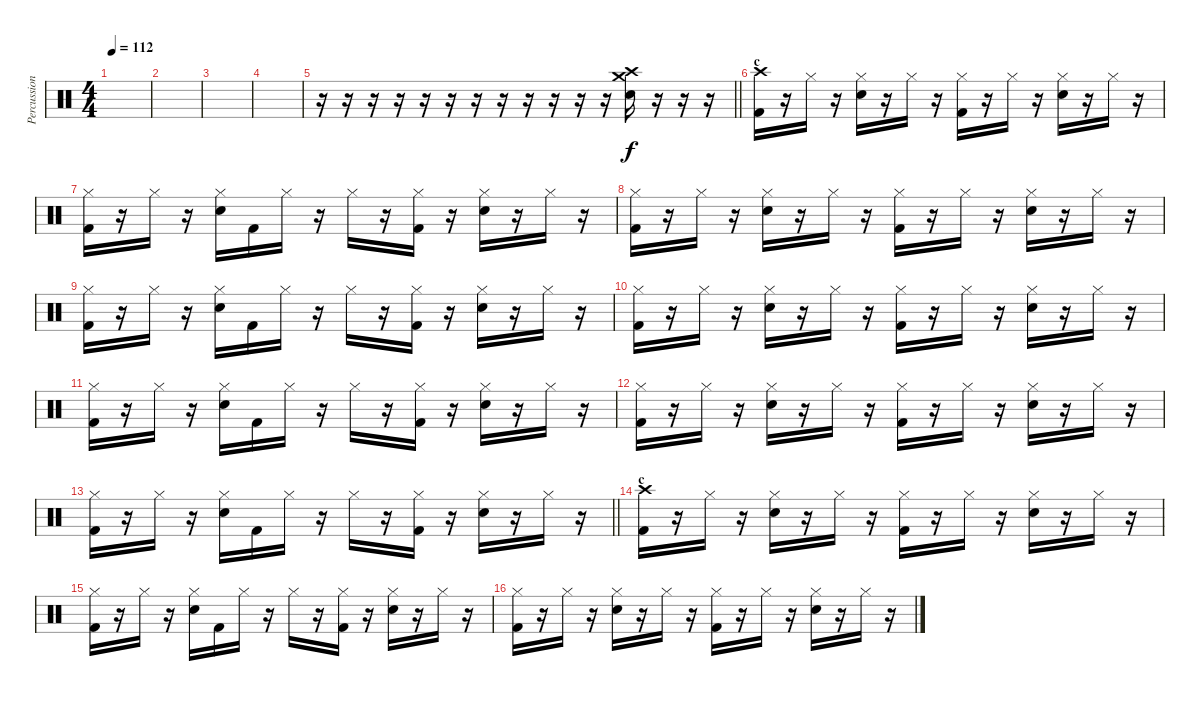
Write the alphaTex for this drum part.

\track ("Percussion" "Percussion") {instrument percussion}
\staff {score}
\articulation defaults
\ts (4 4)
\tempo 112
\clef neutral
\ks c
|
|
|
|
\barLineRight lightlight
r.16 r.16 r.16 r.16 r.16 r.16 r.16 r.16 r.16 r.16 r.16 r.16 ("Crash medium (hit)" "Crash high (hit)" "Snare (hit) 2").16 r.16 r.16 r.16 |
\section ("" "c")
("Crash high (hit)" "Kick (hit) 2").16 r.16 "Hi-Hat (closed)".16 r.16 ("Hi-Hat (closed)" "Snare (hit) 2").16 r.16 "Hi-Hat (closed)".16 r.16 ("Hi-Hat (closed)" "Kick (hit) 2").16 r.16 "Hi-Hat (closed)".16 r.16 ("Hi-Hat (closed)" "Snare (hit) 2").16 r.16 "Hi-Hat (closed)".16 r.16 |
("Hi-Hat (closed)" "Kick (hit) 2").16 r.16 "Hi-Hat (closed)".16 r.16 ("Hi-Hat (closed)" "Snare (hit) 2").16 "Kick (hit) 2".16 "Hi-Hat (closed)".16 r.16 "Hi-Hat (closed)".16 r.16 ("Hi-Hat (closed)" "Kick (hit) 2").16 r.16 ("Hi-Hat (closed)" "Snare (hit) 2").16 r.16 "Hi-Hat (closed)".16 r.16 |
("Hi-Hat (closed)" "Kick (hit) 2").16 r.16 "Hi-Hat (closed)".16 r.16 ("Hi-Hat (closed)" "Snare (hit) 2").16 r.16 "Hi-Hat (closed)".16 r.16 ("Hi-Hat (closed)" "Kick (hit) 2").16 r.16 "Hi-Hat (closed)".16 r.16 ("Hi-Hat (closed)" "Snare (hit) 2").16 r.16 "Hi-Hat (closed)".16 r.16 |
("Hi-Hat (closed)" "Kick (hit) 2").16 r.16 "Hi-Hat (closed)".16 r.16 ("Hi-Hat (closed)" "Snare (hit) 2").16 "Kick (hit) 2".16 "Hi-Hat (closed)".16 r.16 "Hi-Hat (closed)".16 r.16 ("Hi-Hat (closed)" "Kick (hit) 2").16 r.16 ("Hi-Hat (closed)" "Snare (hit) 2").16 r.16 "Hi-Hat (closed)".16 r.16 |
("Hi-Hat (closed)" "Kick (hit) 2").16 r.16 "Hi-Hat (closed)".16 r.16 ("Hi-Hat (closed)" "Snare (hit) 2").16 r.16 "Hi-Hat (closed)".16 r.16 ("Hi-Hat (closed)" "Kick (hit) 2").16 r.16 "Hi-Hat (closed)".16 r.16 ("Hi-Hat (closed)" "Snare (hit) 2").16 r.16 "Hi-Hat (closed)".16 r.16 |
("Hi-Hat (closed)" "Kick (hit) 2").16 r.16 "Hi-Hat (closed)".16 r.16 ("Hi-Hat (closed)" "Snare (hit) 2").16 "Kick (hit) 2".16 "Hi-Hat (closed)".16 r.16 "Hi-Hat (closed)".16 r.16 ("Hi-Hat (closed)" "Kick (hit) 2").16 r.16 ("Hi-Hat (closed)" "Snare (hit) 2").16 r.16 "Hi-Hat (closed)".16 r.16 |
("Hi-Hat (closed)" "Kick (hit) 2").16 r.16 "Hi-Hat (closed)".16 r.16 ("Hi-Hat (closed)" "Snare (hit) 2").16 r.16 "Hi-Hat (closed)".16 r.16 ("Hi-Hat (closed)" "Kick (hit) 2").16 r.16 "Hi-Hat (closed)".16 r.16 ("Hi-Hat (closed)" "Snare (hit) 2").16 r.16 "Hi-Hat (closed)".16 r.16 |
\barLineRight lightlight
("Hi-Hat (closed)" "Kick (hit) 2").16 r.16 "Hi-Hat (closed)".16 r.16 ("Hi-Hat (closed)" "Snare (hit) 2").16 "Kick (hit) 2".16 "Hi-Hat (closed)".16 r.16 "Hi-Hat (closed)".16 r.16 ("Hi-Hat (closed)" "Kick (hit) 2").16 r.16 ("Hi-Hat (closed)" "Snare (hit) 2").16 r.16 "Hi-Hat (closed)".16 r.16 |
\section ("" "c")
("Crash high (hit)" "Kick (hit) 2").16 r.16 "Hi-Hat (closed)".16 r.16 ("Hi-Hat (closed)" "Snare (hit) 2").16 r.16 "Hi-Hat (closed)".16 r.16 ("Hi-Hat (closed)" "Kick (hit) 2").16 r.16 "Hi-Hat (closed)".16 r.16 ("Hi-Hat (closed)" "Snare (hit) 2").16 r.16 "Hi-Hat (closed)".16 r.16 |
("Hi-Hat (closed)" "Kick (hit) 2").16 r.16 "Hi-Hat (closed)".16 r.16 ("Hi-Hat (closed)" "Snare (hit) 2").16 "Kick (hit) 2".16 "Hi-Hat (closed)".16 r.16 "Hi-Hat (closed)".16 r.16 ("Hi-Hat (closed)" "Kick (hit) 2").16 r.16 ("Hi-Hat (closed)" "Snare (hit) 2").16 r.16 "Hi-Hat (closed)".16 r.16 |
("Hi-Hat (closed)" "Kick (hit) 2").16 r.16 "Hi-Hat (closed)".16 r.16 ("Hi-Hat (closed)" "Snare (hit) 2").16 r.16 "Hi-Hat (closed)".16 r.16 ("Hi-Hat (closed)" "Kick (hit) 2").16 r.16 "Hi-Hat (closed)".16 r.16 ("Hi-Hat (closed)" "Snare (hit) 2").16 r.16 "Hi-Hat (closed)".16 r.16
